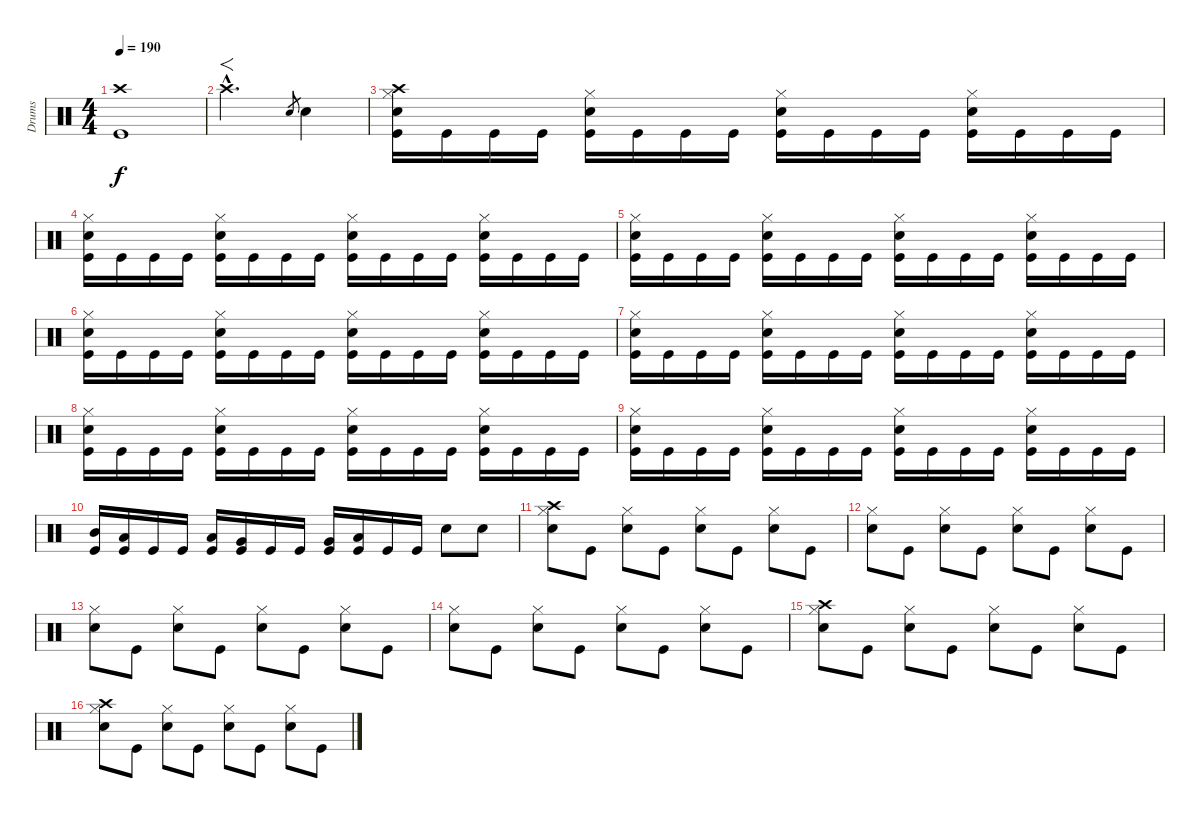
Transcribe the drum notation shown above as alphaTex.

\track ("Drums" "Drums") {instrument percussion}
\staff {score}
\articulation defaults
\ts (4 4)
\tempo 190
\clef neutral
\ks c
("Crash high (hit)" "Kick (hit)").1{dy f} |
"Crash high (hit)"{hac}.2{f d} "Snare (hit) 2".8{gr} "Snare (hit) 2".4 |
("Crash high (hit)" "Hi-Hat (closed)" "Snare (hit) 2" "Kick (hit)").16 "Kick (hit)".16 "Kick (hit)".16 "Kick (hit)".16 ("Hi-Hat (closed)" "Snare (hit) 2" "Kick (hit)").16 "Kick (hit)".16 "Kick (hit)".16 "Kick (hit)".16 ("Hi-Hat (closed)" "Snare (hit) 2" "Kick (hit)").16 "Kick (hit)".16 "Kick (hit)".16 "Kick (hit)".16 ("Hi-Hat (closed)" "Snare (hit) 2" "Kick (hit)").16 "Kick (hit)".16 "Kick (hit)".16 "Kick (hit)".16 |
("Hi-Hat (closed)" "Snare (hit) 2" "Kick (hit)").16 "Kick (hit)".16 "Kick (hit)".16 "Kick (hit)".16 ("Hi-Hat (closed)" "Snare (hit) 2" "Kick (hit)").16 "Kick (hit)".16 "Kick (hit)".16 "Kick (hit)".16 ("Hi-Hat (closed)" "Snare (hit) 2" "Kick (hit)").16 "Kick (hit)".16 "Kick (hit)".16 "Kick (hit)".16 ("Hi-Hat (closed)" "Snare (hit) 2" "Kick (hit)").16 "Kick (hit)".16 "Kick (hit)".16 "Kick (hit)".16 |
("Hi-Hat (closed)" "Snare (hit) 2" "Kick (hit)").16 "Kick (hit)".16 "Kick (hit)".16 "Kick (hit)".16 ("Hi-Hat (closed)" "Snare (hit) 2" "Kick (hit)").16 "Kick (hit)".16 "Kick (hit)".16 "Kick (hit)".16 ("Hi-Hat (closed)" "Snare (hit) 2" "Kick (hit)").16 "Kick (hit)".16 "Kick (hit)".16 "Kick (hit)".16 ("Hi-Hat (closed)" "Snare (hit) 2" "Kick (hit)").16 "Kick (hit)".16 "Kick (hit)".16 "Kick (hit)".16 |
("Hi-Hat (closed)" "Snare (hit) 2" "Kick (hit)").16 "Kick (hit)".16 "Kick (hit)".16 "Kick (hit)".16 ("Hi-Hat (closed)" "Snare (hit) 2" "Kick (hit)").16 "Kick (hit)".16 "Kick (hit)".16 "Kick (hit)".16 ("Hi-Hat (closed)" "Snare (hit) 2" "Kick (hit)").16 "Kick (hit)".16 "Kick (hit)".16 "Kick (hit)".16 ("Hi-Hat (closed)" "Snare (hit) 2" "Kick (hit)").16 "Kick (hit)".16 "Kick (hit)".16 "Kick (hit)".16 |
("Hi-Hat (closed)" "Snare (hit) 2" "Kick (hit)").16 "Kick (hit)".16 "Kick (hit)".16 "Kick (hit)".16 ("Hi-Hat (closed)" "Snare (hit) 2" "Kick (hit)").16 "Kick (hit)".16 "Kick (hit)".16 "Kick (hit)".16 ("Hi-Hat (closed)" "Snare (hit) 2" "Kick (hit)").16 "Kick (hit)".16 "Kick (hit)".16 "Kick (hit)".16 ("Hi-Hat (closed)" "Snare (hit) 2" "Kick (hit)").16 "Kick (hit)".16 "Kick (hit)".16 "Kick (hit)".16 |
("Hi-Hat (closed)" "Snare (hit) 2" "Kick (hit)").16 "Kick (hit)".16 "Kick (hit)".16 "Kick (hit)".16 ("Hi-Hat (closed)" "Snare (hit) 2" "Kick (hit)").16 "Kick (hit)".16 "Kick (hit)".16 "Kick (hit)".16 ("Hi-Hat (closed)" "Snare (hit) 2" "Kick (hit)").16 "Kick (hit)".16 "Kick (hit)".16 "Kick (hit)".16 ("Hi-Hat (closed)" "Snare (hit) 2" "Kick (hit)").16 "Kick (hit)".16 "Kick (hit)".16 "Kick (hit)".16 |
("Hi-Hat (closed)" "Snare (hit) 2" "Kick (hit)").16 "Kick (hit)".16 "Kick (hit)".16 "Kick (hit)".16 ("Hi-Hat (closed)" "Snare (hit) 2" "Kick (hit)").16 "Kick (hit)".16 "Kick (hit)".16 "Kick (hit)".16 ("Hi-Hat (closed)" "Snare (hit) 2" "Kick (hit)").16 "Kick (hit)".16 "Kick (hit)".16 "Kick (hit)".16 ("Hi-Hat (closed)" "Snare (hit) 2" "Kick (hit)").16 "Kick (hit)".16 "Kick (hit)".16 "Kick (hit)".16 |
("Mid Tom (hit)" "Kick (hit)").16 ("Low Tom (hit)" "Kick (hit)").16 "Kick (hit)".16 "Kick (hit)".16 ("Low Tom (hit)" "Kick (hit)").16 ("Very Low Tom (hit)" "Kick (hit)").16 "Kick (hit)".16 "Kick (hit)".16 ("Very Low Tom (hit)" "Kick (hit)").16 ("Low Floor Tom (hit)" "Kick (hit)").16 "Kick (hit)".16 "Kick (hit)".16 "Snare (hit) 2".8 "Snare (hit) 2".8 |
("Crash high (hit)" "Hi-Hat (closed)" "Snare (hit) 2").8 "Kick (hit)".8 ("Hi-Hat (closed)" "Snare (hit) 2").8 "Kick (hit)".8 ("Hi-Hat (closed)" "Snare (hit) 2").8 "Kick (hit)".8 ("Hi-Hat (closed)" "Snare (hit) 2").8 "Kick (hit)".8 |
("Hi-Hat (closed)" "Snare (hit) 2").8 "Kick (hit)".8 ("Hi-Hat (closed)" "Snare (hit) 2").8 "Kick (hit)".8 ("Hi-Hat (closed)" "Snare (hit) 2").8 "Kick (hit)".8 ("Hi-Hat (closed)" "Snare (hit) 2").8 "Kick (hit)".8 |
("Hi-Hat (closed)" "Snare (hit) 2").8 "Kick (hit)".8 ("Hi-Hat (closed)" "Snare (hit) 2").8 "Kick (hit)".8 ("Hi-Hat (closed)" "Snare (hit) 2").8 "Kick (hit)".8 ("Hi-Hat (closed)" "Snare (hit) 2").8 "Kick (hit)".8 |
("Hi-Hat (closed)" "Snare (hit) 2").8 "Kick (hit)".8 ("Hi-Hat (closed)" "Snare (hit) 2").8 "Kick (hit)".8 ("Hi-Hat (closed)" "Snare (hit) 2").8 "Kick (hit)".8 ("Hi-Hat (closed)" "Snare (hit) 2").8 "Kick (hit)".8 |
("Crash high (hit)" "Hi-Hat (closed)" "Snare (hit) 2").8 "Kick (hit)".8 ("Hi-Hat (closed)" "Snare (hit) 2").8 "Kick (hit)".8 ("Hi-Hat (closed)" "Snare (hit) 2").8 "Kick (hit)".8 ("Hi-Hat (closed)" "Snare (hit) 2").8 "Kick (hit)".8 |
("Crash high (hit)" "Hi-Hat (closed)" "Snare (hit) 2").8 "Kick (hit)".8 ("Hi-Hat (closed)" "Snare (hit) 2").8 "Kick (hit)".8 ("Hi-Hat (closed)" "Snare (hit) 2").8 "Kick (hit)".8 ("Hi-Hat (closed)" "Snare (hit) 2").8 "Kick (hit)".8
